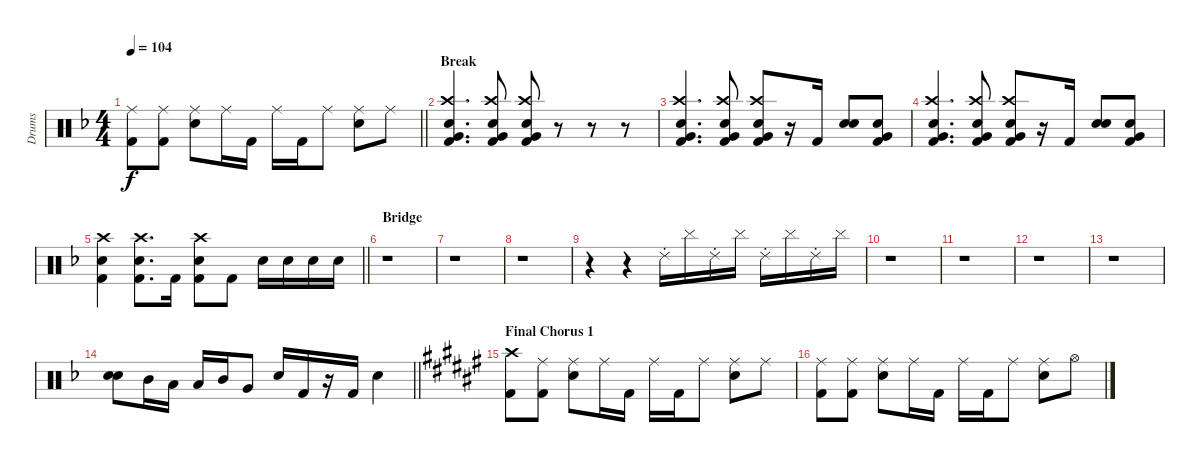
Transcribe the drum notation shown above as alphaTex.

\track ("Drums" "Drums") {instrument percussion}
\staff {score}
\articulation defaults
\ts (4 4)
\tempo 104
\clef neutral
\barLineRight lightlight
\ks dminor
("Ride (middle)" "Kick (hit) 2").8{dy f} ("Ride (middle)" "Kick (hit) 2").8 ("Ride (middle)" "Electric Snare (hit)").8 "Ride (middle)".16 "Kick (hit) 2".16 "Ride (middle)".16 "Kick (hit) 2".16 "Ride (middle)".8 ("Ride (middle)" "Electric Snare (hit)").8 "Ride (middle)".8 |
\section ("" "Break")
("Crash high (hit)" "Very Low Tom (hit)" "Electric Snare (hit)" "Kick (hit) 2").4{d} ("Crash high (hit)" "Very Low Tom (hit)" "Electric Snare (hit)" "Kick (hit) 2").8 ("Crash high (hit)" "Very Low Tom (hit)" "Electric Snare (hit)" "Kick (hit) 2").8 r.8 r.8 r.8 |
("Crash high (hit)" "Very Low Tom (hit)" "Electric Snare (hit)" "Kick (hit) 2").4{d} ("Crash high (hit)" "Very Low Tom (hit)" "Electric Snare (hit)" "Kick (hit) 2").8 ("Crash high (hit)" "Very Low Tom (hit)" "Electric Snare (hit)" "Kick (hit) 2").8 r.16 "Kick (hit) 2".16 ("Snare (hit) 2" "Electric Snare (hit)").8 ("Very Low Tom (hit)" "Electric Snare (hit)" "Kick (hit) 2").8 |
("Crash high (hit)" "Very Low Tom (hit)" "Electric Snare (hit)" "Kick (hit) 2").4{d} ("Crash high (hit)" "Very Low Tom (hit)" "Electric Snare (hit)" "Kick (hit) 2").8 ("Crash high (hit)" "Very Low Tom (hit)" "Electric Snare (hit)" "Kick (hit) 2").8 r.16 "Kick (hit) 2".16 ("Snare (hit) 2" "Electric Snare (hit)").8 ("Very Low Tom (hit)" "Electric Snare (hit)" "Kick (hit) 2").8 |
\barLineRight lightlight
("Crash high (hit)" "Electric Snare (hit)" "Kick (hit) 2").4 ("Crash high (hit)" "Electric Snare (hit)" "Kick (hit) 2").8{d} "Kick (hit) 2".16 ("Crash high (hit)" "Electric Snare (hit)" "Kick (hit) 2").8 "Kick (hit) 2".8 "Electric Snare (hit)".16 "Electric Snare (hit)".16 "Electric Snare (hit)".16 "Electric Snare (hit)".16 |
\section ("" "Bridge")
r.1 |
r.1 |
r.1 |
r.4 r.4 "Ride (choke) 2".16 "Cymbal (hit)".16 "Ride (choke) 2".16 "Cymbal (hit)".16 "Ride (choke) 2".16 "Cymbal (hit)".16 "Ride (choke) 2".16 "Cymbal (hit)".16 |
r.1 |
r.1 |
r.1 |
r.1 |
\barLineRight lightlight
("Electric Snare (hit)" "Electric Snare (hit)").8 "Mid Tom (hit)".16 "Low Tom (hit)".16 "Low Tom (hit)".16 "Mid Tom (hit)".16 "Very Low Tom (hit)".8 "Electric Snare (hit)".16 "Kick (hit) 2".16 r.16 "Kick (hit) 2".16 "Electric Snare (hit)".4 |
\section ("" "Final Chorus 1")
\ks d#minor
("Crash high (hit)" "Kick (hit) 2").8 ("Ride (middle)" "Kick (hit) 2").8 ("Ride (middle)" "Electric Snare (hit)").8 "Ride (middle)".16 "Kick (hit) 2".16 "Ride (middle)".16 "Kick (hit) 2".16 "Ride (middle)".8 ("Ride (middle)" "Electric Snare (hit)").8 "Ride (middle)".8 |
("Ride (middle)" "Kick (hit) 2").8 ("Ride (middle)" "Kick (hit) 2").8 ("Ride (middle)" "Electric Snare (hit)").8 "Ride (middle)".16 "Kick (hit) 2".16 "Ride (middle)".16 "Kick (hit) 2".16 "Ride (middle)".8 ("Ride (middle)" "Electric Snare (hit)").8 "Hi-Hat (open)".8
